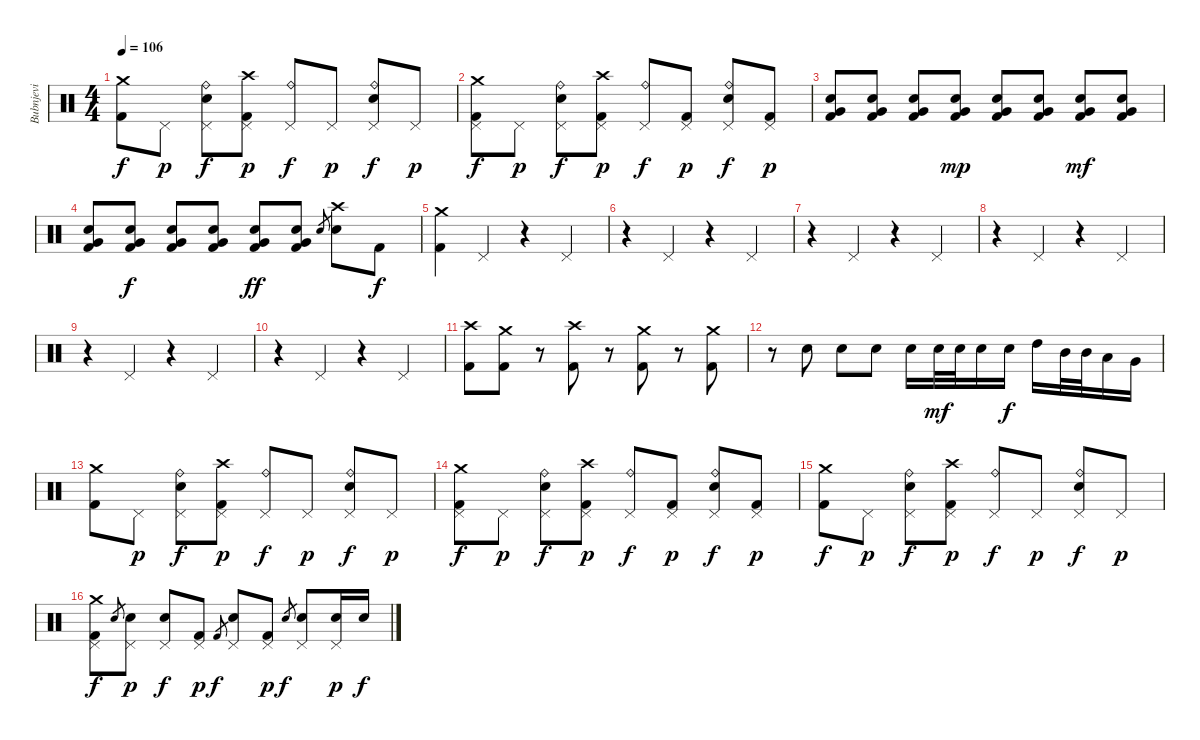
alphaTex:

\track ("Bubnjevi" "Bubnjevi") {instrument percussion}
\staff {score}
\articulation defaults
\ts (4 4)
\tempo 106
\clef neutral
\ks c
("Crash medium (hit)" "Kick (hit) 2").8{dy f} "Pedal Hi-Hat (hit)".8{dy p} ("Ride (bell)" "Electric Snare (hit)" "Pedal Hi-Hat (hit)").8{dy f} ("Crash high (hit)" "Kick (hit) 2" "Pedal Hi-Hat (hit)").8{dy p} ("Ride (bell)" "Pedal Hi-Hat (hit)").8{dy f} "Pedal Hi-Hat (hit)".8{dy p} ("Ride (bell)" "Electric Snare (hit)" "Pedal Hi-Hat (hit)").8{dy f} "Pedal Hi-Hat (hit)".8{dy p} |
("Crash medium (hit)" "Kick (hit) 2" "Pedal Hi-Hat (hit)").8{dy f} "Pedal Hi-Hat (hit)".8{dy p} ("Ride (bell)" "Electric Snare (hit)" "Pedal Hi-Hat (hit)").8{dy f} ("Crash high (hit)" "Kick (hit) 2" "Pedal Hi-Hat (hit)").8{dy p} ("Ride (bell)" "Pedal Hi-Hat (hit)").8{dy f} ("Kick (hit) 2" "Pedal Hi-Hat (hit)").8{dy p} ("Ride (bell)" "Electric Snare (hit)" "Pedal Hi-Hat (hit)").8{dy f} ("Kick (hit) 2" "Pedal Hi-Hat (hit)").8{dy p} |
("Electric Snare (hit)" "Kick (hit) 2" "Very Low Tom (hit)").8 ("Electric Snare (hit)" "Kick (hit) 2" "Very Low Tom (hit)").8 ("Electric Snare (hit)" "Kick (hit) 2" "Very Low Tom (hit)").8 ("Electric Snare (hit)" "Kick (hit) 2" "Very Low Tom (hit)").8{dy mp} ("Electric Snare (hit)" "Kick (hit) 2" "Very Low Tom (hit)").8 ("Electric Snare (hit)" "Kick (hit) 2" "Very Low Tom (hit)").8 ("Electric Snare (hit)" "Kick (hit) 2" "Very Low Tom (hit)").8{dy mf} ("Electric Snare (hit)" "Kick (hit) 2" "Very Low Tom (hit)").8 |
("Electric Snare (hit)" "Kick (hit) 2" "Very Low Tom (hit)").8 ("Electric Snare (hit)" "Kick (hit) 2" "Very Low Tom (hit)").8{dy f} ("Electric Snare (hit)" "Kick (hit) 2" "Very Low Tom (hit)").8 ("Electric Snare (hit)" "Kick (hit) 2" "Very Low Tom (hit)").8 ("Electric Snare (hit)" "Kick (hit) 2" "Very Low Tom (hit)").8{dy ff} ("Electric Snare (hit)" "Kick (hit) 2" "Very Low Tom (hit)").8 "Electric Snare (hit)".8{gr} ("Crash high (hit)" "Electric Snare (hit)").8 "Kick (hit) 2".8{dy f} |
("Crash medium (hit)" "Kick (hit) 2").4 "Pedal Hi-Hat (hit)".4 r.4 "Pedal Hi-Hat (hit)".4 |
r.4 "Pedal Hi-Hat (hit)".4 r.4 "Pedal Hi-Hat (hit)".4 |
r.4 "Pedal Hi-Hat (hit)".4 r.4 "Pedal Hi-Hat (hit)".4 |
r.4 "Pedal Hi-Hat (hit)".4 r.4 "Pedal Hi-Hat (hit)".4 |
r.4 "Pedal Hi-Hat (hit)".4 r.4 "Pedal Hi-Hat (hit)".4 |
r.4 "Pedal Hi-Hat (hit)".4 r.4 "Pedal Hi-Hat (hit)".4 |
("Crash high (hit)" "Kick (hit) 2").8 ("Crash medium (hit)" "Kick (hit) 2").8 r.8 ("Crash high (hit)" "Kick (hit) 2").8 r.8 ("Crash medium (hit)" "Kick (hit) 2").8 r.8 ("Crash medium (hit)" "Kick (hit) 2").8 |
r.8 "Electric Snare (hit)".8 "Electric Snare (hit)".8 "Electric Snare (hit)".8 "Electric Snare (hit)".16 "Electric Snare (hit)".32{dy mf} "Electric Snare (hit)".32 "Electric Snare (hit)".16 "Electric Snare (hit)".16{dy f} "High Tom (hit)".16 "Mid Tom (hit)".32 "Mid Tom (hit)".32 "Low Tom (hit)".16 "Very Low Tom (hit)".16 |
("Crash medium (hit)" "Kick (hit) 2").8 "Pedal Hi-Hat (hit)".8{dy p} ("Ride (bell)" "Electric Snare (hit)" "Pedal Hi-Hat (hit)").8{dy f} ("Crash high (hit)" "Kick (hit) 2" "Pedal Hi-Hat (hit)").8{dy p} ("Ride (bell)" "Pedal Hi-Hat (hit)").8{dy f} "Pedal Hi-Hat (hit)".8{dy p} ("Ride (bell)" "Electric Snare (hit)" "Pedal Hi-Hat (hit)").8{dy f} "Pedal Hi-Hat (hit)".8{dy p} |
("Crash medium (hit)" "Kick (hit) 2" "Pedal Hi-Hat (hit)").8{dy f} "Pedal Hi-Hat (hit)".8{dy p} ("Ride (bell)" "Electric Snare (hit)" "Pedal Hi-Hat (hit)").8{dy f} ("Crash high (hit)" "Kick (hit) 2" "Pedal Hi-Hat (hit)").8{dy p} ("Ride (bell)" "Pedal Hi-Hat (hit)").8{dy f} ("Kick (hit) 2" "Pedal Hi-Hat (hit)").8{dy p} ("Ride (bell)" "Electric Snare (hit)" "Pedal Hi-Hat (hit)").8{dy f} ("Kick (hit) 2" "Pedal Hi-Hat (hit)").8{dy p} |
("Crash medium (hit)" "Kick (hit) 2").8{dy f} "Pedal Hi-Hat (hit)".8{dy p} ("Ride (bell)" "Electric Snare (hit)" "Pedal Hi-Hat (hit)").8{dy f} ("Crash high (hit)" "Kick (hit) 2" "Pedal Hi-Hat (hit)").8{dy p} ("Ride (bell)" "Pedal Hi-Hat (hit)").8{dy f} "Pedal Hi-Hat (hit)".8{dy p} ("Ride (bell)" "Electric Snare (hit)" "Pedal Hi-Hat (hit)").8{dy f} "Pedal Hi-Hat (hit)".8{dy p} |
("Crash medium (hit)" "Kick (hit) 2" "Pedal Hi-Hat (hit)").8{dy f} "Electric Snare (hit)".8{gr} ("Electric Snare (hit)" "Pedal Hi-Hat (hit)").8{dy p} ("Electric Snare (hit)" "Pedal Hi-Hat (hit)").8{dy f} ("Kick (hit) 2" "Pedal Hi-Hat (hit)").8{dy p} "Kick (hit) 2".8{gr dy f} ("Electric Snare (hit)" "Pedal Hi-Hat (hit)").8 ("Kick (hit) 2" "Pedal Hi-Hat (hit)").8{dy p} "Electric Snare (hit)".8{gr dy f} ("Electric Snare (hit)" "Pedal Hi-Hat (hit)").8 ("Electric Snare (hit)" "Pedal Hi-Hat (hit)").16{dy p} "Electric Snare (hit)".16{dy f}
